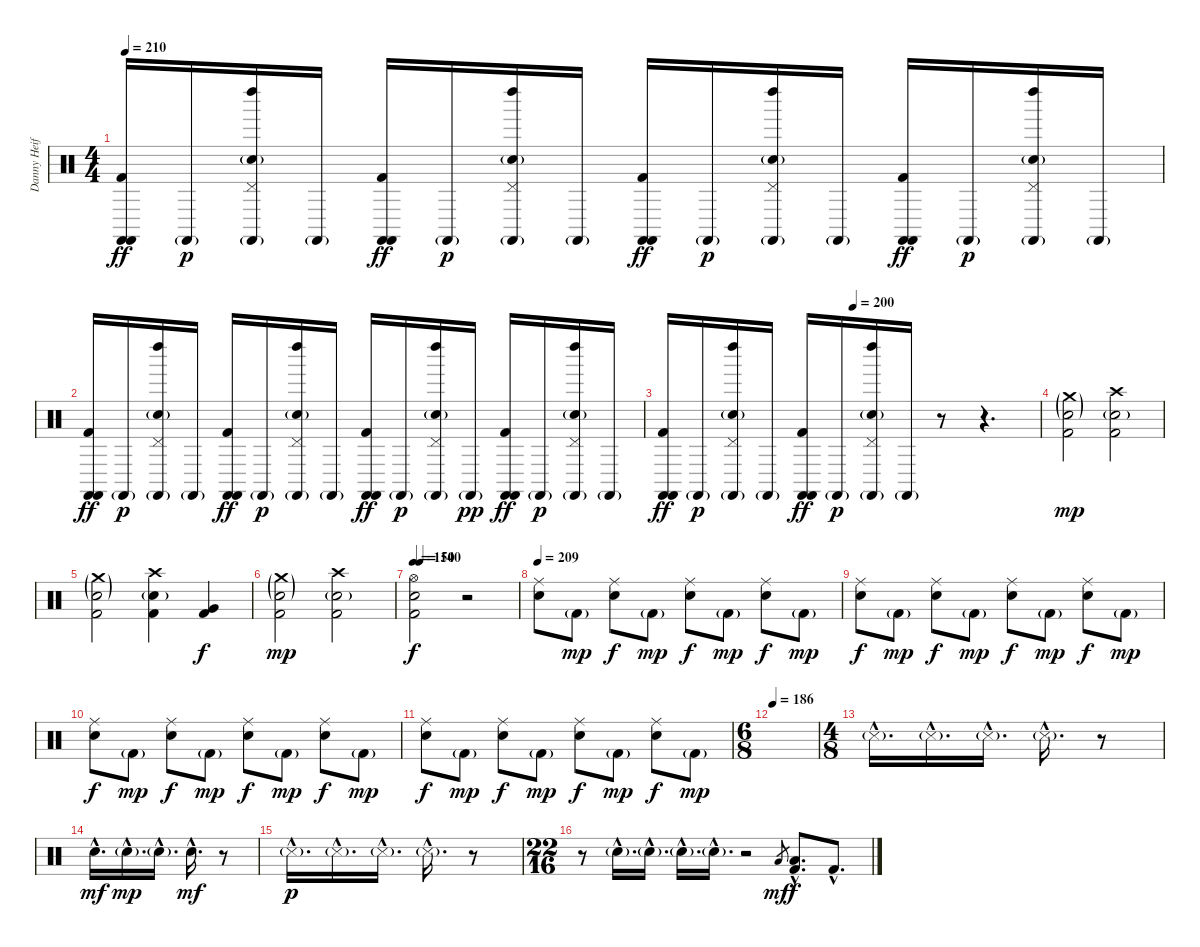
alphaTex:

\track ("Danny Heifetz - Drums" "Danny Heif") {instrument percussion}
\staff {score}
\articulation defaults
\ts (4 4)
\tempo 210
\clef neutral
\ks c
("Kick (hit) 2" "Castanets (hit)" "Castanets (hit)").16{dy ff} "Castanets (hit)"{g}.16{dy p} ("Left Maraca (hit)" "Pedal Hi-Hat (hit)" "Electric Snare (hit)"{g} "Castanets (hit)"{g}).16 "Castanets (hit)"{g}.16 ("Kick (hit) 2" "Castanets (hit)" "Castanets (hit)").16{dy ff} "Castanets (hit)"{g}.16{dy p} ("Left Maraca (hit)" "Pedal Hi-Hat (hit)" "Electric Snare (hit)"{g} "Castanets (hit)"{g}).16 "Castanets (hit)"{g}.16 ("Kick (hit) 2" "Castanets (hit)" "Castanets (hit)").16{dy ff} "Castanets (hit)"{g}.16{dy p} ("Left Maraca (hit)" "Pedal Hi-Hat (hit)" "Electric Snare (hit)"{g} "Castanets (hit)"{g}).16 "Castanets (hit)"{g}.16 ("Kick (hit) 2" "Castanets (hit)" "Castanets (hit)").16{dy ff} "Castanets (hit)"{g}.16{dy p} ("Left Maraca (hit)" "Pedal Hi-Hat (hit)" "Electric Snare (hit)"{g} "Castanets (hit)"{g}).16 "Castanets (hit)"{g}.16 |
("Kick (hit) 2" "Castanets (hit)" "Castanets (hit)").16{dy ff} "Castanets (hit)"{g}.16{dy p} ("Left Maraca (hit)" "Pedal Hi-Hat (hit)" "Electric Snare (hit)"{g} "Castanets (hit)"{g}).16 "Castanets (hit)"{g}.16 ("Kick (hit) 2" "Castanets (hit)" "Castanets (hit)").16{dy ff} "Castanets (hit)"{g}.16{dy p} ("Left Maraca (hit)" "Pedal Hi-Hat (hit)" "Electric Snare (hit)"{g} "Castanets (hit)"{g}).16 "Castanets (hit)"{g}.16 ("Kick (hit) 2" "Castanets (hit)" "Castanets (hit)").16{dy ff} "Castanets (hit)"{g}.16{dy p} ("Left Maraca (hit)" "Pedal Hi-Hat (hit)" "Electric Snare (hit)"{g} "Castanets (hit)"{g}).16 "Castanets (hit)"{g}.16{dy pp} ("Kick (hit) 2" "Castanets (hit)" "Castanets (hit)").16{dy ff} "Castanets (hit)"{g}.16{dy p} ("Left Maraca (hit)" "Pedal Hi-Hat (hit)" "Electric Snare (hit)"{g} "Castanets (hit)"{g}).16 "Castanets (hit)"{g}.16 |
\tempo (200 0.5)
("Kick (hit) 2" "Castanets (hit)" "Castanets (hit)").16{dy ff} "Castanets (hit)"{g}.16{dy p} ("Left Maraca (hit)" "Pedal Hi-Hat (hit)" "Electric Snare (hit)"{g} "Castanets (hit)"{g}).16 "Castanets (hit)"{g}.16 ("Kick (hit) 2" "Castanets (hit)" "Castanets (hit)").16{dy ff} "Castanets (hit)"{g}.16{dy p} ("Left Maraca (hit)" "Pedal Hi-Hat (hit)" "Electric Snare (hit)"{g} "Castanets (hit)"{g}).16 "Castanets (hit)"{g}.16 r.8 r.4{d} |
("Crash medium (hit)"{g} "Electric Snare (hit)"{g} "Kick (hit) 2").2{dy mp volume 15} ("Crash high (hit)" "Electric Snare (hit)"{g} "Kick (hit) 2").2 |
("Crash medium (hit)"{g} "Electric Snare (hit)"{g} "Kick (hit) 2").2 ("Crash high (hit)" "Electric Snare (hit)"{g} "Kick (hit) 2").4 ("Very Low Tom (hit)" "Kick (hit) 2").4{dy f} |
("Crash medium (hit)"{g} "Electric Snare (hit)"{g} "Kick (hit) 2").2{dy mp} ("Crash high (hit)" "Electric Snare (hit)"{g} "Kick (hit) 2").2 |
\tempo 150
\tempo (140 0.0625)
("Hi-Hat (open)" "Electric Snare (hit)" "Kick (hit) 2").2{dy f} r.2 |
\tempo 209
("Ride (middle)" "Snare (hit) 2").8 "Kick (hit) 2"{g}.8{dy mp} ("Ride (middle)" "Snare (hit) 2").8{dy f} "Kick (hit) 2"{g}.8{dy mp} ("Ride (middle)" "Snare (hit) 2").8{dy f} "Kick (hit) 2"{g}.8{dy mp} ("Ride (middle)" "Snare (hit) 2").8{dy f} "Kick (hit) 2"{g}.8{dy mp} |
("Ride (middle)" "Snare (hit) 2").8{dy f} "Kick (hit) 2"{g}.8{dy mp} ("Ride (middle)" "Snare (hit) 2").8{dy f} "Kick (hit) 2"{g}.8{dy mp} ("Ride (middle)" "Snare (hit) 2").8{dy f} "Kick (hit) 2"{g}.8{dy mp} ("Ride (middle)" "Snare (hit) 2").8{dy f} "Kick (hit) 2"{g}.8{dy mp} |
("Ride (middle)" "Snare (hit) 2").8{dy f} "Kick (hit) 2"{g}.8{dy mp} ("Ride (middle)" "Snare (hit) 2").8{dy f} "Kick (hit) 2"{g}.8{dy mp} ("Ride (middle)" "Snare (hit) 2").8{dy f} "Kick (hit) 2"{g}.8{dy mp} ("Ride (middle)" "Snare (hit) 2").8{dy f} "Kick (hit) 2"{g}.8{dy mp} |
("Ride (middle)" "Snare (hit) 2").8{dy f} "Kick (hit) 2"{g}.8{dy mp} ("Ride (middle)" "Snare (hit) 2").8{dy f} "Kick (hit) 2"{g}.8{dy mp} ("Ride (middle)" "Snare (hit) 2").8{dy f} "Kick (hit) 2"{g}.8{dy mp} ("Ride (middle)" "Snare (hit) 2").8{dy f} "Kick (hit) 2"{g}.8{dy mp} |
\ts (6 8)
\tempo 186
|
\ts (4 8)
"Metronome (hit)"{g hac}.16{d} "Metronome (hit)"{g hac}.16{d} "Metronome (hit)"{g hac}.16{d} "Metronome (hit)"{g hac}.16{d} r.8 |
"Electric Snare (hit)"{hac}.16{d dy mf} "Electric Snare (hit)"{g hac}.16{d dy mp} "Electric Snare (hit)"{g hac}.16{d} "Electric Snare (hit)"{hac}.16{d dy mf} r.8 |
"Metronome (hit)"{g hac}.16{d dy p} "Metronome (hit)"{g hac}.16{d} "Metronome (hit)"{g hac}.16{d} "Metronome (hit)"{g hac}.16{d} r.8 |
\ts (22 16)
r.8 "Electric Snare (hit)"{g hac}.16{d} "Electric Snare (hit)"{g hac}.16{d} "Electric Snare (hit)"{g hac}.16{d} "Electric Snare (hit)"{g hac}.16{d} r.2 "Low Tom (hit)".8{gr dy mf} ("Low Tom (hit)"{hac} "Kick (hit) 2"{hac}).8{d dy f} "Kick (hit) 2"{hac}.8{d}
